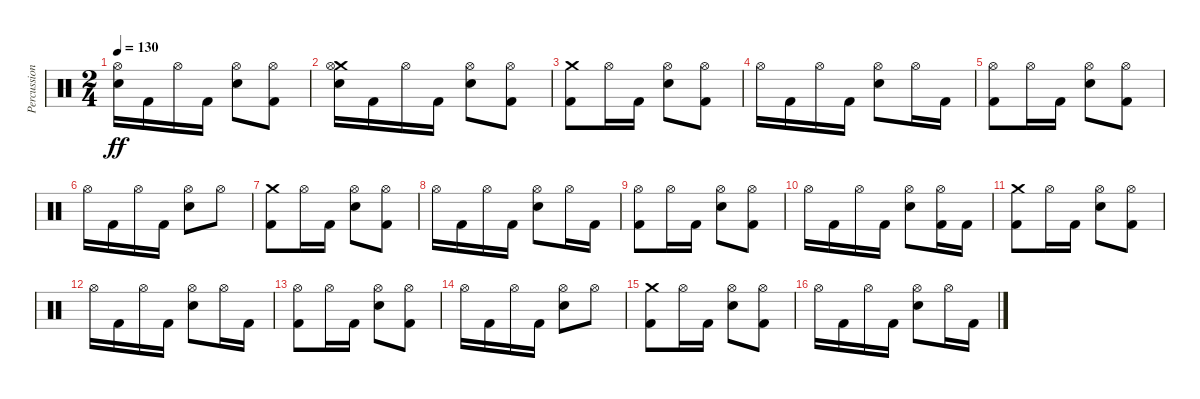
\track ("Percussion" "Percussion") {instrument percussion}
\staff {score}
\articulation defaults
\ts (2 4)
\tempo 130
\clef neutral
\ks c
("Hi-Hat (open)" "Snare (hit) 2").16{dy ff} "Kick (hit) 2".16 "Hi-Hat (open)".16 "Kick (hit) 2".16 ("Hi-Hat (open)" "Snare (hit) 2").8 ("Hi-Hat (open)" "Kick (hit) 2").8 |
("Crash medium (hit)" "Hi-Hat (open)" "Snare (hit) 2").16 "Kick (hit) 2".16 "Hi-Hat (open)".16 "Kick (hit) 2".16 ("Hi-Hat (open)" "Snare (hit) 2").8 ("Hi-Hat (open)" "Kick (hit) 2").8 |
("Crash medium (hit)" "Kick (hit) 2").8 "Hi-Hat (open)".16 "Kick (hit) 2".16 ("Hi-Hat (open)" "Snare (hit) 2").8 ("Hi-Hat (open)" "Kick (hit) 2").8 |
"Hi-Hat (open)".16 "Kick (hit) 2".16 "Hi-Hat (open)".16 "Kick (hit) 2".16 ("Hi-Hat (open)" "Snare (hit) 2").8 "Hi-Hat (open)".16 "Kick (hit) 2".16 |
("Hi-Hat (open)" "Kick (hit) 2").8 "Hi-Hat (open)".16 "Kick (hit) 2".16 ("Hi-Hat (open)" "Snare (hit) 2").8 ("Hi-Hat (open)" "Kick (hit) 2").8 |
"Hi-Hat (open)".16 "Kick (hit) 2".16 "Hi-Hat (open)".16 "Kick (hit) 2".16 ("Hi-Hat (open)" "Snare (hit) 2").8 "Hi-Hat (open)".8 |
("Crash medium (hit)" "Kick (hit) 2").8 "Hi-Hat (open)".16 "Kick (hit) 2".16 ("Hi-Hat (open)" "Snare (hit) 2").8 ("Hi-Hat (open)" "Kick (hit) 2").8 |
"Hi-Hat (open)".16 "Kick (hit) 2".16 "Hi-Hat (open)".16 "Kick (hit) 2".16 ("Hi-Hat (open)" "Snare (hit) 2").8 "Hi-Hat (open)".16 "Kick (hit) 2".16 |
("Hi-Hat (open)" "Kick (hit) 2").8 "Hi-Hat (open)".16 "Kick (hit) 2".16 ("Hi-Hat (open)" "Snare (hit) 2").8 ("Hi-Hat (open)" "Kick (hit) 2").8 |
"Hi-Hat (open)".16 "Kick (hit) 2".16 "Hi-Hat (open)".16 "Kick (hit) 2".16 ("Hi-Hat (open)" "Snare (hit) 2").8 ("Hi-Hat (open)" "Kick (hit) 2").16 "Kick (hit) 2".16 |
("Crash medium (hit)" "Kick (hit) 2").8 "Hi-Hat (open)".16 "Kick (hit) 2".16 ("Hi-Hat (open)" "Snare (hit) 2").8 ("Hi-Hat (open)" "Kick (hit) 2").8 |
"Hi-Hat (open)".16 "Kick (hit) 2".16 "Hi-Hat (open)".16 "Kick (hit) 2".16 ("Hi-Hat (open)" "Snare (hit) 2").8 "Hi-Hat (open)".16 "Kick (hit) 2".16 |
("Hi-Hat (open)" "Kick (hit) 2").8 "Hi-Hat (open)".16 "Kick (hit) 2".16 ("Hi-Hat (open)" "Snare (hit) 2").8 ("Hi-Hat (open)" "Kick (hit) 2").8 |
"Hi-Hat (open)".16 "Kick (hit) 2".16 "Hi-Hat (open)".16 "Kick (hit) 2".16 ("Hi-Hat (open)" "Snare (hit) 2").8 "Hi-Hat (open)".8 |
("Crash medium (hit)" "Kick (hit) 2").8 "Hi-Hat (open)".16 "Kick (hit) 2".16 ("Hi-Hat (open)" "Snare (hit) 2").8 ("Hi-Hat (open)" "Kick (hit) 2").8 |
"Hi-Hat (open)".16 "Kick (hit) 2".16 "Hi-Hat (open)".16 "Kick (hit) 2".16 ("Hi-Hat (open)" "Snare (hit) 2").8 "Hi-Hat (open)".16 "Kick (hit) 2".16
